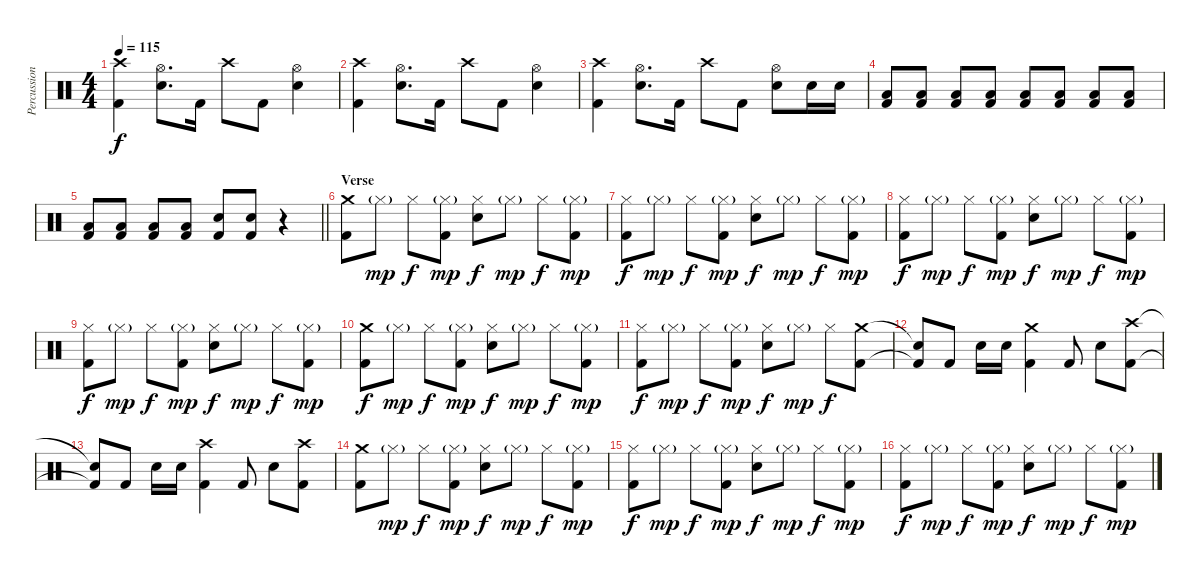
\track ("Percussion" "Percussion") {instrument percussion}
\staff {score}
\articulation defaults
\ts (4 4)
\tempo 115
\clef neutral
\ks c
("Crash high (hit)" "Kick (hit) 2").4{dy f} ("Hi-Hat (open)" "Electric Snare (hit)").8{d} "Kick (hit) 2".16 "Crash high (hit)".8 "Kick (hit) 2".8 ("Hi-Hat (open)" "Electric Snare (hit)").4 |
("Crash high (hit)" "Kick (hit) 2").4 ("Hi-Hat (open)" "Electric Snare (hit)").8{d} "Kick (hit) 2".16 "Crash high (hit)".8 "Kick (hit) 2".8 ("Hi-Hat (open)" "Electric Snare (hit)").4 |
("Crash high (hit)" "Kick (hit) 2").4 ("Hi-Hat (open)" "Electric Snare (hit)").8{d} "Kick (hit) 2".16 "Crash high (hit)".8 "Kick (hit) 2".8 ("Hi-Hat (open)" "Electric Snare (hit)").8 "Electric Snare (hit)".16 "Electric Snare (hit)".16 |
("Low Floor Tom (hit)" "Kick (hit) 2").8 ("Low Floor Tom (hit)" "Kick (hit) 2").8 ("Low Floor Tom (hit)" "Kick (hit) 2").8 ("Low Floor Tom (hit)" "Kick (hit) 2").8 ("Low Floor Tom (hit)" "Kick (hit) 2").8 ("Low Floor Tom (hit)" "Kick (hit) 2").8 ("Low Floor Tom (hit)" "Kick (hit) 2").8 ("Low Floor Tom (hit)" "Kick (hit) 2").8 |
\barLineRight lightlight
("Low Floor Tom (hit)" "Kick (hit) 2").8 ("Low Floor Tom (hit)" "Kick (hit) 2").8 ("Low Floor Tom (hit)" "Kick (hit) 2").8 ("Low Floor Tom (hit)" "Kick (hit) 2").8 ("Electric Snare (hit)" "Kick (hit) 2").8 ("Electric Snare (hit)" "Kick (hit) 2").8 r.4 |
\section ("" "Verse")
("Crash medium (hit)" "Kick (hit) 2").8 "Hi-Hat (closed)"{g}.8{dy mp} "Hi-Hat (closed)".8{dy f} ("Hi-Hat (closed)"{g} "Kick (hit) 2").8{dy mp} ("Hi-Hat (closed)" "Electric Snare (hit)").8{dy f} "Hi-Hat (closed)"{g}.8{dy mp} "Hi-Hat (closed)".8{dy f} ("Hi-Hat (closed)"{g} "Kick (hit) 2").8{dy mp} |
("Hi-Hat (closed)" "Kick (hit) 2").8{dy f} "Hi-Hat (closed)"{g}.8{dy mp} "Hi-Hat (closed)".8{dy f} ("Hi-Hat (closed)"{g} "Kick (hit) 2").8{dy mp} ("Hi-Hat (closed)" "Electric Snare (hit)").8{dy f} "Hi-Hat (closed)"{g}.8{dy mp} "Hi-Hat (closed)".8{dy f} ("Hi-Hat (closed)"{g} "Kick (hit) 2").8{dy mp} |
("Hi-Hat (closed)" "Kick (hit) 2").8{dy f} "Hi-Hat (closed)"{g}.8{dy mp} "Hi-Hat (closed)".8{dy f} ("Hi-Hat (closed)"{g} "Kick (hit) 2").8{dy mp} ("Hi-Hat (closed)" "Electric Snare (hit)").8{dy f} "Hi-Hat (closed)"{g}.8{dy mp} "Hi-Hat (closed)".8{dy f} ("Hi-Hat (closed)"{g} "Kick (hit) 2").8{dy mp} |
("Hi-Hat (closed)" "Kick (hit) 2").8{dy f} "Hi-Hat (closed)"{g}.8{dy mp} "Hi-Hat (closed)".8{dy f} ("Hi-Hat (closed)"{g} "Kick (hit) 2").8{dy mp} ("Hi-Hat (closed)" "Electric Snare (hit)").8{dy f} "Hi-Hat (closed)"{g}.8{dy mp} "Hi-Hat (closed)".8{dy f} ("Hi-Hat (closed)"{g} "Kick (hit) 2").8{dy mp} |
("Crash medium (hit)" "Kick (hit) 2").8{dy f} "Hi-Hat (closed)"{g}.8{dy mp} "Hi-Hat (closed)".8{dy f} ("Hi-Hat (closed)"{g} "Kick (hit) 2").8{dy mp} ("Hi-Hat (closed)" "Electric Snare (hit)").8{dy f} "Hi-Hat (closed)"{g}.8{dy mp} "Hi-Hat (closed)".8{dy f} ("Hi-Hat (closed)"{g} "Kick (hit) 2").8{dy mp} |
("Hi-Hat (closed)" "Kick (hit) 2").8{dy f} "Hi-Hat (closed)"{g}.8{dy mp} "Hi-Hat (closed)".8{dy f} ("Hi-Hat (closed)"{g} "Kick (hit) 2").8{dy mp} ("Hi-Hat (closed)" "Electric Snare (hit)").8{dy f} "Hi-Hat (closed)"{g}.8{dy mp} "Hi-Hat (closed)".8{dy f} ("Crash medium (hit)" "Kick (hit) 2").8 |
("Snare (hit)"{t} "Kick (hit) 2"{t}).8 "Kick (hit) 2".8 "Electric Snare (hit)".16 "Electric Snare (hit)".16 ("Crash medium (hit)" "Kick (hit) 2").4 "Kick (hit) 2".8 "Electric Snare (hit)".8 ("Crash high (hit)" "Kick (hit) 2").8 |
("Snare (hit)"{t} "Kick (hit) 2"{t}).8 "Kick (hit) 2".8 "Electric Snare (hit)".16 "Electric Snare (hit)".16 ("Crash high (hit)" "Kick (hit) 2").4 "Kick (hit) 2".8 "Electric Snare (hit)".8 ("Crash high (hit)" "Kick (hit) 2").8 |
("Crash medium (hit)" "Kick (hit) 2").8 "Hi-Hat (closed)"{g}.8{dy mp} "Hi-Hat (closed)".8{dy f} ("Hi-Hat (closed)"{g} "Kick (hit) 2").8{dy mp} ("Hi-Hat (closed)" "Electric Snare (hit)").8{dy f} "Hi-Hat (closed)"{g}.8{dy mp} "Hi-Hat (closed)".8{dy f} ("Hi-Hat (closed)"{g} "Kick (hit) 2").8{dy mp} |
("Hi-Hat (closed)" "Kick (hit) 2").8{dy f} "Hi-Hat (closed)"{g}.8{dy mp} "Hi-Hat (closed)".8{dy f} ("Hi-Hat (closed)"{g} "Kick (hit) 2").8{dy mp} ("Hi-Hat (closed)" "Electric Snare (hit)").8{dy f} "Hi-Hat (closed)"{g}.8{dy mp} "Hi-Hat (closed)".8{dy f} ("Hi-Hat (closed)"{g} "Kick (hit) 2").8{dy mp} |
("Hi-Hat (closed)" "Kick (hit) 2").8{dy f} "Hi-Hat (closed)"{g}.8{dy mp} "Hi-Hat (closed)".8{dy f} ("Hi-Hat (closed)"{g} "Kick (hit) 2").8{dy mp} ("Hi-Hat (closed)" "Electric Snare (hit)").8{dy f} "Hi-Hat (closed)"{g}.8{dy mp} "Hi-Hat (closed)".8{dy f} ("Hi-Hat (closed)"{g} "Kick (hit) 2").8{dy mp}
